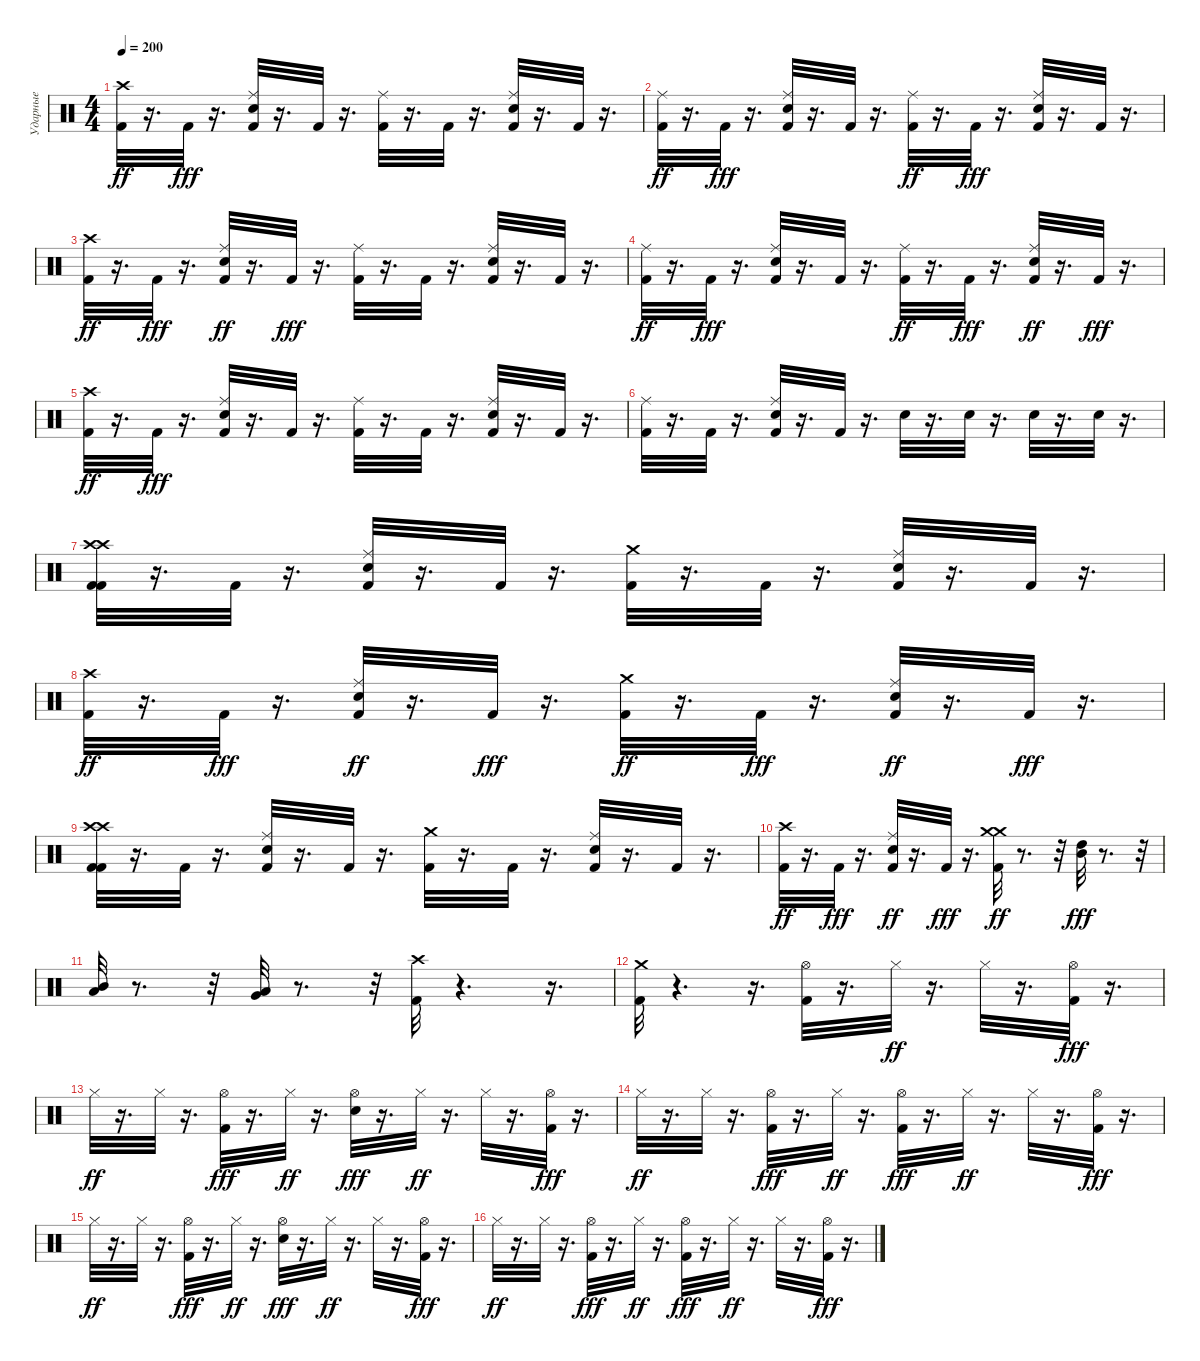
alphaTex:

\track ("Ударные" "Ударные") {instrument percussion}
\staff {score}
\articulation defaults
\ts (4 4)
\tempo 200
\clef neutral
\ks c
("Kick (hit) 2" "Crash high (hit)").32{dy ff} r.16{d} "Kick (hit) 2".32{dy fff} r.16{d} ("Ride (middle)" "Snare (hit) 2" "Kick (hit) 2").32 r.16{d} "Kick (hit) 2".32 r.16{d} ("Ride (middle)" "Kick (hit) 2").32 r.16{d} "Kick (hit) 2".32 r.16{d} ("Kick (hit) 2" "Ride (middle)" "Snare (hit) 2").32 r.16{d} "Kick (hit) 2".32 r.16{d} |
("Kick (hit) 2" "Ride (middle)").32{dy ff} r.16{d} "Kick (hit) 2".32{dy fff} r.16{d} ("Ride (middle)" "Snare (hit) 2" "Kick (hit) 2").32 r.16{d} "Kick (hit) 2".32 r.16{d} ("Kick (hit) 2" "Ride (middle)").32{dy ff} r.16{d} "Kick (hit) 2".32{dy fff} r.16{d} ("Ride (middle)" "Kick (hit) 2" "Snare (hit) 2").32 r.16{d} "Kick (hit) 2".32 r.16{d} |
("Kick (hit) 2" "Crash high (hit)").32{dy ff} r.16{d} "Kick (hit) 2".32{dy fff} r.16{d} ("Kick (hit) 2" "Snare (hit) 2" "Ride (middle)").32{dy ff} r.16{d} "Kick (hit) 2".32{dy fff} r.16{d} ("Ride (middle)" "Kick (hit) 2").32 r.16{d} "Kick (hit) 2".32 r.16{d} ("Kick (hit) 2" "Ride (middle)" "Snare (hit) 2").32 r.16{d} "Kick (hit) 2".32 r.16{d} |
("Kick (hit) 2" "Ride (middle)").32{dy ff} r.16{d} "Kick (hit) 2".32{dy fff} r.16{d} ("Ride (middle)" "Snare (hit) 2" "Kick (hit) 2").32 r.16{d} "Kick (hit) 2".32 r.16{d} ("Kick (hit) 2" "Ride (middle)").32{dy ff} r.16{d} "Kick (hit) 2".32{dy fff} r.16{d} ("Snare (hit) 2" "Kick (hit) 2" "Ride (middle)").32{dy ff} r.16{d} "Kick (hit) 2".32{dy fff} r.16{d} |
("Kick (hit) 2" "Crash high (hit)").32{dy ff} r.16{d} "Kick (hit) 2".32{dy fff} r.16{d} ("Ride (middle)" "Kick (hit) 2" "Snare (hit) 2").32 r.16{d} "Kick (hit) 2".32 r.16{d} ("Ride (middle)" "Kick (hit) 2").32 r.16{d} "Kick (hit) 2".32 r.16{d} ("Ride (middle)" "Snare (hit) 2" "Kick (hit) 2").32 r.16{d} "Kick (hit) 2".32 r.16{d} |
("Ride (middle)" "Kick (hit) 2").32 r.16{d} "Kick (hit) 2".32 r.16{d} ("Ride (middle)" "Snare (hit) 2" "Kick (hit) 2").32 r.16{d} "Kick (hit) 2".32 r.16{d} "Snare (hit) 2".32 r.16{d} "Snare (hit) 2".32 r.16{d} "Snare (hit) 2".32 r.16{d} "Snare (hit) 2".32 r.16{d} |
("Crash high (hit)" "Kick (hit) 2" "Crash high (hit)" "Kick (hit) 2").32 r.16{d} "Kick (hit) 2".32 r.16{d} ("Ride (middle)" "Snare (hit) 2" "Kick (hit) 2").32 r.16{d} "Kick (hit) 2".32 r.16{d} ("Crash medium (hit)" "Kick (hit) 2").32 r.16{d} "Kick (hit) 2".32 r.16{d} ("Ride (middle)" "Snare (hit) 2" "Kick (hit) 2").32 r.16{d} "Kick (hit) 2".32 r.16{d} |
("Kick (hit) 2" "Crash high (hit)").32{dy ff} r.16{d} "Kick (hit) 2".32{dy fff} r.16{d} ("Snare (hit) 2" "Kick (hit) 2" "Ride (middle)").32{dy ff} r.16{d} "Kick (hit) 2".32{dy fff} r.16{d} ("Kick (hit) 2" "Crash medium (hit)").32{dy ff} r.16{d} "Kick (hit) 2".32{dy fff} r.16{d} ("Snare (hit) 2" "Kick (hit) 2" "Ride (middle)").32{dy ff} r.16{d} "Kick (hit) 2".32{dy fff} r.16{d} |
("Crash high (hit)" "Kick (hit) 2" "Crash high (hit)" "Kick (hit) 2").32 r.16{d} "Kick (hit) 2".32 r.16{d} ("Ride (middle)" "Snare (hit) 2" "Kick (hit) 2").32 r.16{d} "Kick (hit) 2".32 r.16{d} ("Crash medium (hit)" "Kick (hit) 2").32 r.16{d} "Kick (hit) 2".32 r.16{d} ("Ride (middle)" "Snare (hit) 2" "Kick (hit) 2").32 r.16{d} "Kick (hit) 2".32 r.16{d} |
("Kick (hit) 2" "Crash high (hit)").32{dy ff} r.16{d} "Kick (hit) 2".32{dy fff} r.16{d} ("Snare (hit) 2" "Kick (hit) 2" "Ride (middle)").32{dy ff} r.16{d} "Kick (hit) 2".32{dy fff} r.16{d} ("Crash medium (hit)" "Kick (hit) 2" "Crash medium (hit)").32{dy ff} r.8{d} r.32 ("Mid Tom (hit)" "High Tom (hit)").32{dy fff} r.8{d} r.32 |
("Mid Tom (hit)" "Low Tom (hit)").32 r.8{d} r.32 ("Very Low Tom (hit)" "Low Tom (hit)").32 r.8{d} r.32 ("Crash high (hit)" "Kick (hit) 2").32 r.4{d} r.16{d} |
("Crash medium (hit)" "Kick (hit) 2").32 r.4{d} r.16{d} ("Kick (hit) 2" "Hi-Hat (open)").32 r.16{d} "Hi-Hat (closed)".32{dy ff} r.16{d} "Hi-Hat (closed)".32 r.16{d} ("Kick (hit) 2" "Hi-Hat (open)").32{dy fff} r.16{d} |
"Hi-Hat (closed)".32{dy ff} r.16{d} "Hi-Hat (closed)".32 r.16{d} ("Kick (hit) 2" "Hi-Hat (open)").32{dy fff} r.16{d} "Hi-Hat (closed)".32{dy ff} r.16{d} ("Hi-Hat (open)" "Snare (hit) 2").32{dy fff} r.16{d} "Hi-Hat (closed)".32{dy ff} r.16{d} "Hi-Hat (closed)".32 r.16{d} ("Kick (hit) 2" "Hi-Hat (open)").32{dy fff} r.16{d} |
"Hi-Hat (closed)".32{dy ff} r.16{d} "Hi-Hat (closed)".32 r.16{d} ("Hi-Hat (open)" "Kick (hit) 2").32{dy fff} r.16{d} "Hi-Hat (closed)".32{dy ff} r.16{d} ("Kick (hit) 2" "Hi-Hat (open)").32{dy fff} r.16{d} "Hi-Hat (closed)".32{dy ff} r.16{d} "Hi-Hat (closed)".32 r.16{d} ("Kick (hit) 2" "Hi-Hat (open)").32{dy fff} r.16{d} |
"Hi-Hat (closed)".32{dy ff} r.16{d} "Hi-Hat (closed)".32 r.16{d} ("Kick (hit) 2" "Hi-Hat (open)").32{dy fff} r.16{d} "Hi-Hat (closed)".32{dy ff} r.16{d} ("Hi-Hat (open)" "Snare (hit) 2").32{dy fff} r.16{d} "Hi-Hat (closed)".32{dy ff} r.16{d} "Hi-Hat (closed)".32 r.16{d} ("Kick (hit) 2" "Hi-Hat (open)").32{dy fff} r.16{d} |
"Hi-Hat (closed)".32{dy ff} r.16{d} "Hi-Hat (closed)".32 r.16{d} ("Hi-Hat (open)" "Kick (hit) 2").32{dy fff} r.16{d} "Hi-Hat (closed)".32{dy ff} r.16{d} ("Kick (hit) 2" "Hi-Hat (open)").32{dy fff} r.16{d} "Hi-Hat (closed)".32{dy ff} r.16{d} "Hi-Hat (closed)".32 r.16{d} ("Kick (hit) 2" "Hi-Hat (open)").32{dy fff} r.16{d}
